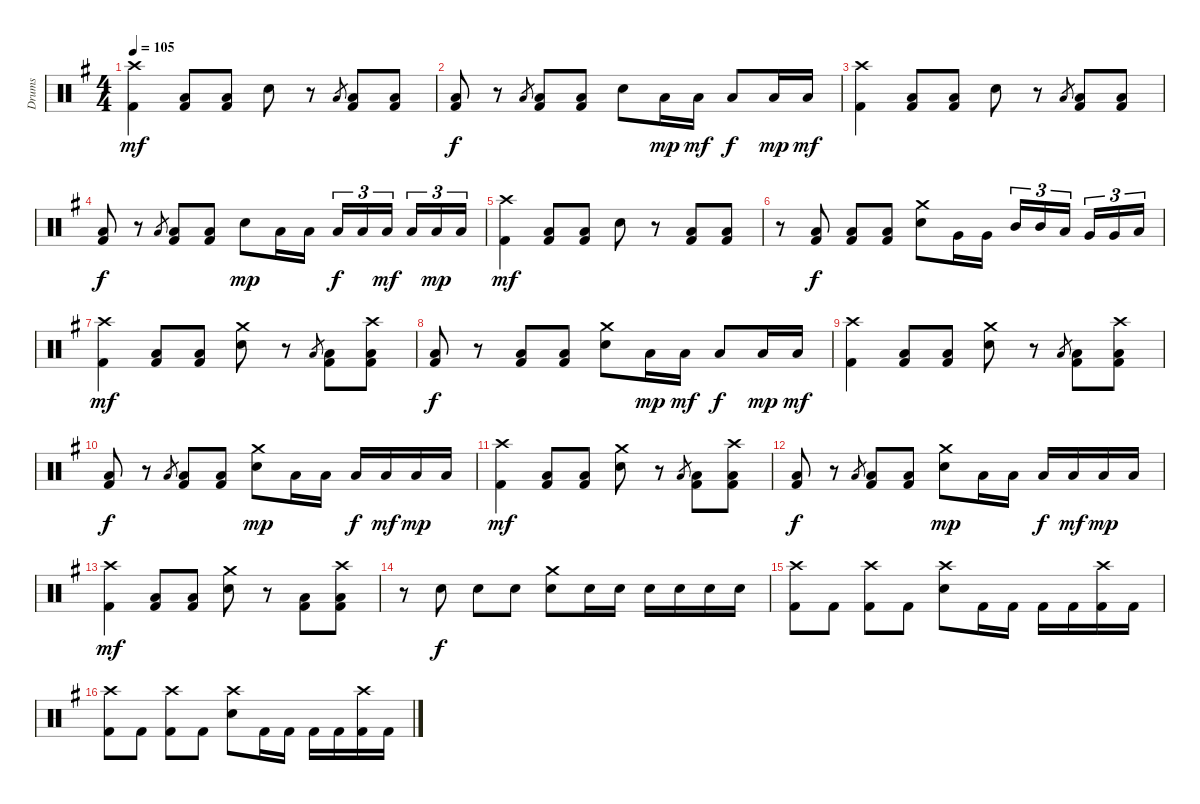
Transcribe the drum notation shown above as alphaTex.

\track ("Drums" "Drums") {instrument percussion}
\staff {score}
\articulation defaults
\ts (4 4)
\tempo 105
\clef neutral
\ks eminor
("Crash high (hit)" "Kick (hit) 2").4{dy mf} ("Low Floor Tom (hit)" "Kick (hit) 2").8 ("Low Floor Tom (hit)" "Kick (hit) 2").8 "Electric Snare (hit)".8 r.8 "Low Floor Tom (hit)".8{gr} ("Low Floor Tom (hit)" "Kick (hit) 2").8 ("Low Floor Tom (hit)" "Kick (hit) 2").8 |
("Low Floor Tom (hit)" "Kick (hit) 2").8{dy f} r.8 "Low Floor Tom (hit)".8{gr} ("Low Floor Tom (hit)" "Kick (hit) 2").8 ("Low Floor Tom (hit)" "Kick (hit) 2").8 "Electric Snare (hit)".8 "Low Floor Tom (hit)".16{dy mp} "Low Floor Tom (hit)".16{dy mf} "Low Floor Tom (hit)".8{dy f} "Low Floor Tom (hit)".16{dy mp} "Low Floor Tom (hit)".16{dy mf} |
("Crash high (hit)" "Kick (hit) 2").4 ("Low Floor Tom (hit)" "Kick (hit) 2").8 ("Low Floor Tom (hit)" "Kick (hit) 2").8 "Electric Snare (hit)".8 r.8 "Low Floor Tom (hit)".8{gr} ("Low Floor Tom (hit)" "Kick (hit) 2").8 ("Low Floor Tom (hit)" "Kick (hit) 2").8 |
("Low Floor Tom (hit)" "Kick (hit) 2").8{dy f} r.8 "Low Floor Tom (hit)".8{gr} ("Low Floor Tom (hit)" "Kick (hit) 2").8 ("Low Floor Tom (hit)" "Kick (hit) 2").8 "Electric Snare (hit)".8{dy mp} "Low Floor Tom (hit)".16 "Low Floor Tom (hit)".16 "Low Floor Tom (hit)".16{tu (3 2) dy f} "Low Floor Tom (hit)".16{tu (3 2)} "Low Floor Tom (hit)".16{tu (3 2) dy mf beam splitsecondary} "Low Floor Tom (hit)".16{tu (3 2)} "Low Floor Tom (hit)".16{tu (3 2) dy mp} "Low Floor Tom (hit)".16{tu (3 2)} |
("Crash high (hit)" "Kick (hit) 2").4{dy mf} ("Low Floor Tom (hit)" "Kick (hit) 2").8 ("Low Floor Tom (hit)" "Kick (hit) 2").8 "Electric Snare (hit)".8 r.8 ("Low Floor Tom (hit)" "Kick (hit) 2").8 ("Low Floor Tom (hit)" "Kick (hit) 2").8 |
r.8 ("Low Floor Tom (hit)" "Kick (hit) 2").8{dy f} ("Low Floor Tom (hit)" "Kick (hit) 2").8 ("Low Floor Tom (hit)" "Kick (hit) 2").8 ("Crash medium (hit)" "Electric Snare (hit)").8 "Very Low Tom (hit)".16 "Very Low Tom (hit)".16 "Mid Tom (hit)".16{tu (3 2)} "Mid Tom (hit)".16{tu (3 2)} "Low Tom (hit)".16{tu (3 2) beam splitsecondary} "Very Low Tom (hit)".16{tu (3 2)} "Very Low Tom (hit)".16{tu (3 2)} "Low Floor Tom (hit)".16{tu (3 2)} |
("Crash high (hit)" "Kick (hit) 2").4{dy mf} ("Low Floor Tom (hit)" "Kick (hit) 2").8 ("Low Floor Tom (hit)" "Kick (hit) 2").8 ("Crash medium (hit)" "Electric Snare (hit)").8 r.8 "Low Floor Tom (hit)".8{gr} ("Low Floor Tom (hit)" "Kick (hit) 2").8 ("Crash high (hit)" "Low Floor Tom (hit)" "Kick (hit) 2").8 |
("Low Floor Tom (hit)" "Kick (hit) 2").8{dy f} r.8 ("Low Floor Tom (hit)" "Kick (hit) 2").8 ("Low Floor Tom (hit)" "Kick (hit) 2").8 ("Crash medium (hit)" "Electric Snare (hit)").8 "Low Floor Tom (hit)".16{dy mp} "Low Floor Tom (hit)".16{dy mf} "Low Floor Tom (hit)".8{dy f} "Low Floor Tom (hit)".16{dy mp} "Low Floor Tom (hit)".16{dy mf} |
("Crash high (hit)" "Kick (hit) 2").4 ("Low Floor Tom (hit)" "Kick (hit) 2").8 ("Low Floor Tom (hit)" "Kick (hit) 2").8 ("Crash medium (hit)" "Electric Snare (hit)").8 r.8 "Low Floor Tom (hit)".8{gr} ("Low Floor Tom (hit)" "Kick (hit) 2").8 ("Crash high (hit)" "Low Floor Tom (hit)" "Kick (hit) 2").8 |
("Low Floor Tom (hit)" "Kick (hit) 2").8{dy f} r.8 "Low Floor Tom (hit)".8{gr} ("Low Floor Tom (hit)" "Kick (hit) 2").8 ("Low Floor Tom (hit)" "Kick (hit) 2").8 ("Crash medium (hit)" "Electric Snare (hit)").8{dy mp} "Low Floor Tom (hit)".16 "Low Floor Tom (hit)".16 "Low Floor Tom (hit)".16{dy f} "Low Floor Tom (hit)".16{dy mf} "Low Floor Tom (hit)".16{dy mp} "Low Floor Tom (hit)".16 |
("Crash high (hit)" "Kick (hit) 2").4{dy mf} ("Low Floor Tom (hit)" "Kick (hit) 2").8 ("Low Floor Tom (hit)" "Kick (hit) 2").8 ("Crash medium (hit)" "Electric Snare (hit)").8 r.8 "Low Floor Tom (hit)".8{gr} ("Low Floor Tom (hit)" "Kick (hit) 2").8 ("Crash high (hit)" "Low Floor Tom (hit)" "Kick (hit) 2").8 |
("Low Floor Tom (hit)" "Kick (hit) 2").8{dy f} r.8 "Low Floor Tom (hit)".8{gr} ("Low Floor Tom (hit)" "Kick (hit) 2").8 ("Low Floor Tom (hit)" "Kick (hit) 2").8 ("Crash medium (hit)" "Electric Snare (hit)").8{dy mp} "Low Floor Tom (hit)".16 "Low Floor Tom (hit)".16 "Low Floor Tom (hit)".16{dy f} "Low Floor Tom (hit)".16{dy mf} "Low Floor Tom (hit)".16{dy mp} "Low Floor Tom (hit)".16 |
("Crash high (hit)" "Kick (hit) 2").4{dy mf} ("Low Floor Tom (hit)" "Kick (hit) 2").8 ("Low Floor Tom (hit)" "Kick (hit) 2").8 ("Crash medium (hit)" "Electric Snare (hit)").8 r.8 ("Low Floor Tom (hit)" "Kick (hit) 2").8 ("Crash high (hit)" "Low Floor Tom (hit)" "Kick (hit) 2").8 |
r.8 "Electric Snare (hit)".8{dy f} "Electric Snare (hit)".8 "Electric Snare (hit)".8 ("Crash medium (hit)" "Electric Snare (hit)").8 "Electric Snare (hit)".16 "Electric Snare (hit)".16 "Electric Snare (hit)".16 "Electric Snare (hit)".16 "Electric Snare (hit)".16 "Electric Snare (hit)".16 |
("Crash high (hit)" "Kick (hit) 2").8 "Kick (hit) 2".8 ("Crash high (hit)" "Kick (hit) 2").8 "Kick (hit) 2".8 ("Crash high (hit)" "Electric Snare (hit)").8 "Kick (hit) 2".16 "Kick (hit) 2".16 "Kick (hit) 2".16 "Kick (hit) 2".16 ("Crash high (hit)" "Kick (hit) 2").16 "Kick (hit) 2".16 |
("Crash high (hit)" "Kick (hit) 2").8 "Kick (hit) 2".8 ("Crash high (hit)" "Kick (hit) 2").8 "Kick (hit) 2".8 ("Crash high (hit)" "Electric Snare (hit)").8 "Kick (hit) 2".16 "Kick (hit) 2".16 "Kick (hit) 2".16 "Kick (hit) 2".16 ("Crash high (hit)" "Kick (hit) 2").16 "Kick (hit) 2".16
